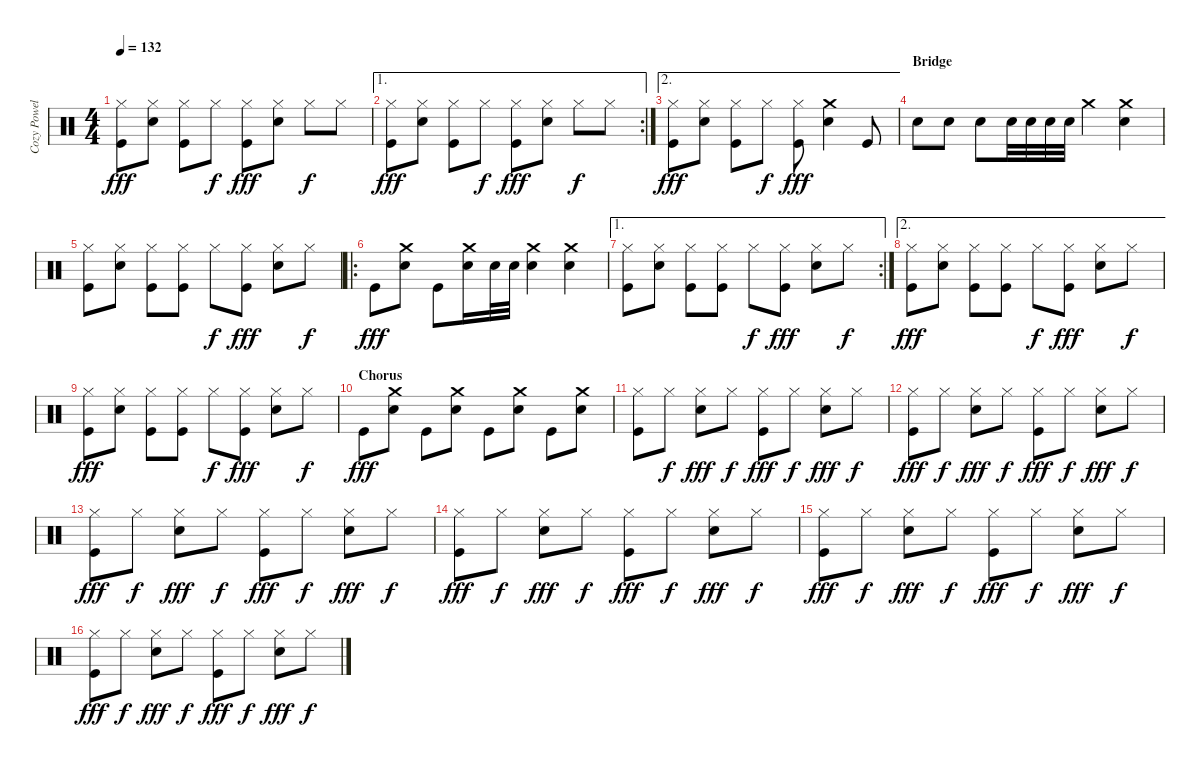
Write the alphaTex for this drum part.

\track ("Cozy Powell" "Cozy Powel") {instrument percussion}
\staff {score}
\articulation defaults
\ts (4 4)
\tempo 132
\clef neutral
\ks c
("Kick (hit)" "Hi-Hat (closed)").8{dy fff} ("Snare (hit) 2" "Hi-Hat (closed)").8 ("Kick (hit)" "Hi-Hat (closed)").8 "Hi-Hat (closed)".8{dy f} ("Kick (hit)" "Hi-Hat (closed)").8{dy fff} ("Snare (hit) 2" "Hi-Hat (closed)").8 "Hi-Hat (closed)".8{dy f} "Hi-Hat (closed)".8 |
\ae 1
\rc 2
("Kick (hit)" "Hi-Hat (closed)").8{dy fff} ("Snare (hit) 2" "Hi-Hat (closed)").8 ("Kick (hit)" "Hi-Hat (closed)").8 "Hi-Hat (closed)".8{dy f} ("Kick (hit)" "Hi-Hat (closed)").8{dy fff} ("Snare (hit) 2" "Hi-Hat (closed)").8 "Hi-Hat (closed)".8{dy f} "Hi-Hat (closed)".8 |
\ae 2
("Kick (hit)" "Hi-Hat (closed)").8{dy fff} ("Snare (hit) 2" "Hi-Hat (closed)").8 ("Kick (hit)" "Hi-Hat (closed)").8 "Hi-Hat (closed)".8{dy f} ("Kick (hit)" "Hi-Hat (closed)").8{dy fff} ("Snare (hit) 2" "Crash medium (hit)").4 "Kick (hit)".8 |
\section ("" "Bridge")
"Snare (hit) 2".8 "Snare (hit) 2".8 "Snare (hit) 2".8 "Snare (hit) 2".32 "Snare (hit) 2".32 "Snare (hit) 2".32 "Snare (hit) 2".32 "Crash medium (hit)".4 ("Snare (hit) 2" "Crash medium (hit)").4 |
("Kick (hit)" "Hi-Hat (closed)").8 ("Snare (hit) 2" "Hi-Hat (closed)").8 ("Kick (hit)" "Hi-Hat (closed)").8 ("Kick (hit)" "Hi-Hat (closed)").8 "Hi-Hat (closed)".8{dy f} ("Kick (hit)" "Hi-Hat (closed)").8{dy fff} ("Snare (hit) 2" "Hi-Hat (closed)").8 "Hi-Hat (closed)".8{dy f} |
\ro "Kick (hit)".8{dy fff}
("Snare (hit) 2" "Crash medium (hit)").8 "Kick (hit)".8 ("Snare (hit) 2" "Crash medium (hit)").16 "Snare (hit) 2".32 "Snare (hit) 2".32 ("Snare (hit) 2" "Crash medium (hit)").4 ("Snare (hit) 2" "Crash medium (hit)").4 |
\ae 1
\rc 2
("Kick (hit)" "Hi-Hat (closed)").8 ("Snare (hit) 2" "Hi-Hat (closed)").8 ("Kick (hit)" "Hi-Hat (closed)").8 ("Kick (hit)" "Hi-Hat (closed)").8 "Hi-Hat (closed)".8{dy f} ("Kick (hit)" "Hi-Hat (closed)").8{dy fff} ("Snare (hit) 2" "Hi-Hat (closed)").8 "Hi-Hat (closed)".8{dy f} |
\ae 2
("Kick (hit)" "Hi-Hat (closed)").8{dy fff} ("Snare (hit) 2" "Hi-Hat (closed)").8 ("Kick (hit)" "Hi-Hat (closed)").8 ("Kick (hit)" "Hi-Hat (closed)").8 "Hi-Hat (closed)".8{dy f} ("Kick (hit)" "Hi-Hat (closed)").8{dy fff} ("Snare (hit) 2" "Hi-Hat (closed)").8 "Hi-Hat (closed)".8{dy f} |
("Kick (hit)" "Hi-Hat (closed)").8{dy fff} ("Snare (hit) 2" "Hi-Hat (closed)").8 ("Kick (hit)" "Hi-Hat (closed)").8 ("Kick (hit)" "Hi-Hat (closed)").8 "Hi-Hat (closed)".8{dy f} ("Kick (hit)" "Hi-Hat (closed)").8{dy fff} ("Snare (hit) 2" "Hi-Hat (closed)").8 "Hi-Hat (closed)".8{dy f} |
\section ("" "Chorus")
"Kick (hit)".8{dy fff} ("Snare (hit) 2" "Crash medium (hit)").8 "Kick (hit)".8 ("Snare (hit) 2" "Crash medium (hit)").8 "Kick (hit)".8 ("Snare (hit) 2" "Crash medium (hit)").8 "Kick (hit)".8 ("Snare (hit) 2" "Crash medium (hit)").8 |
("Kick (hit)" "Hi-Hat (closed)").8 "Hi-Hat (closed)".8{dy f} ("Snare (hit) 2" "Hi-Hat (closed)").8{dy fff} "Hi-Hat (closed)".8{dy f} ("Kick (hit)" "Hi-Hat (closed)").8{dy fff} "Hi-Hat (closed)".8{dy f} ("Snare (hit) 2" "Hi-Hat (closed)").8{dy fff} "Hi-Hat (closed)".8{dy f} |
("Kick (hit)" "Hi-Hat (closed)").8{dy fff} "Hi-Hat (closed)".8{dy f} ("Snare (hit) 2" "Hi-Hat (closed)").8{dy fff} "Hi-Hat (closed)".8{dy f} ("Kick (hit)" "Hi-Hat (closed)").8{dy fff} "Hi-Hat (closed)".8{dy f} ("Snare (hit) 2" "Hi-Hat (closed)").8{dy fff} "Hi-Hat (closed)".8{dy f} |
("Kick (hit)" "Hi-Hat (closed)").8{dy fff} "Hi-Hat (closed)".8{dy f} ("Snare (hit) 2" "Hi-Hat (closed)").8{dy fff} "Hi-Hat (closed)".8{dy f} ("Kick (hit)" "Hi-Hat (closed)").8{dy fff} "Hi-Hat (closed)".8{dy f} ("Snare (hit) 2" "Hi-Hat (closed)").8{dy fff} "Hi-Hat (closed)".8{dy f} |
("Kick (hit)" "Hi-Hat (closed)").8{dy fff} "Hi-Hat (closed)".8{dy f} ("Snare (hit) 2" "Hi-Hat (closed)").8{dy fff} "Hi-Hat (closed)".8{dy f} ("Kick (hit)" "Hi-Hat (closed)").8{dy fff} "Hi-Hat (closed)".8{dy f} ("Snare (hit) 2" "Hi-Hat (closed)").8{dy fff} "Hi-Hat (closed)".8{dy f} |
("Kick (hit)" "Hi-Hat (closed)").8{dy fff} "Hi-Hat (closed)".8{dy f} ("Snare (hit) 2" "Hi-Hat (closed)").8{dy fff} "Hi-Hat (closed)".8{dy f} ("Kick (hit)" "Hi-Hat (closed)").8{dy fff} "Hi-Hat (closed)".8{dy f} ("Snare (hit) 2" "Hi-Hat (closed)").8{dy fff} "Hi-Hat (closed)".8{dy f} |
("Kick (hit)" "Hi-Hat (closed)").8{dy fff} "Hi-Hat (closed)".8{dy f} ("Snare (hit) 2" "Hi-Hat (closed)").8{dy fff} "Hi-Hat (closed)".8{dy f} ("Kick (hit)" "Hi-Hat (closed)").8{dy fff} "Hi-Hat (closed)".8{dy f} ("Snare (hit) 2" "Hi-Hat (closed)").8{dy fff} "Hi-Hat (closed)".8{dy f}
